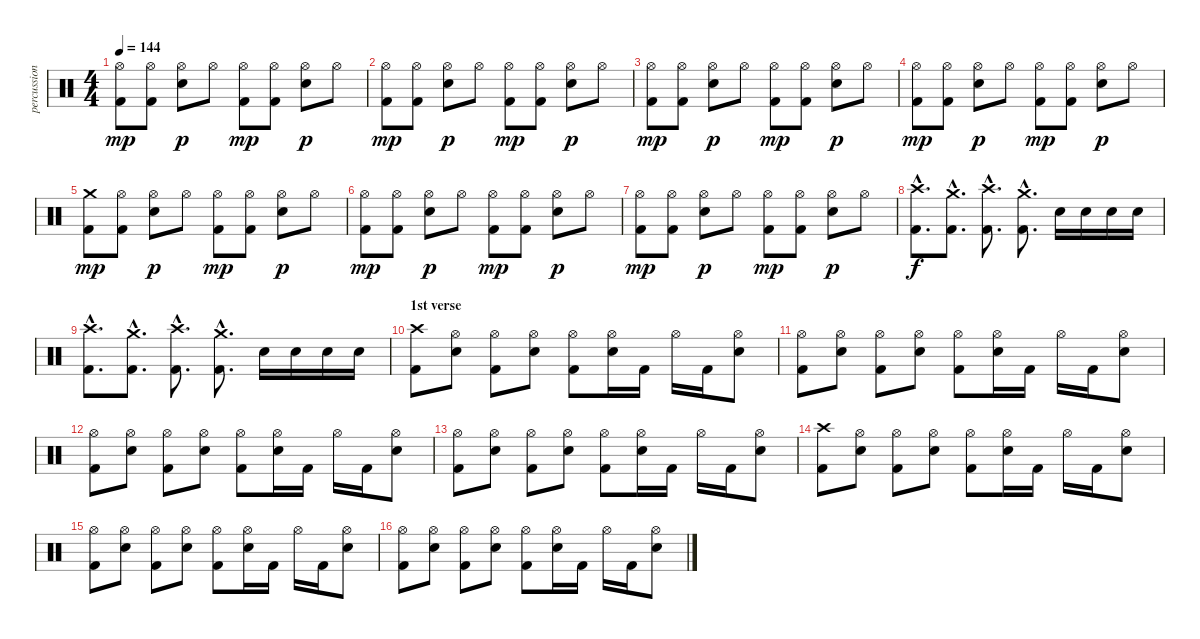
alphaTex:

\track ("percussion" "percussion") {instrument percussion}
\staff {score}
\articulation defaults
\ts (4 4)
\tempo 144
\clef neutral
\ks c
("Hi-Hat (open)" "Kick (hit) 2").8{dy mp} ("Hi-Hat (open)" "Kick (hit) 2").8 ("Hi-Hat (open)" "Electric Snare (hit)").8{dy p} "Hi-Hat (open)".8 ("Hi-Hat (open)" "Kick (hit) 2").8{dy mp} ("Hi-Hat (open)" "Kick (hit) 2").8 ("Hi-Hat (open)" "Electric Snare (hit)").8{dy p} "Hi-Hat (open)".8 |
("Hi-Hat (open)" "Kick (hit) 2").8{dy mp} ("Hi-Hat (open)" "Kick (hit) 2").8 ("Hi-Hat (open)" "Electric Snare (hit)").8{dy p} "Hi-Hat (open)".8 ("Hi-Hat (open)" "Kick (hit) 2").8{dy mp} ("Hi-Hat (open)" "Kick (hit) 2").8 ("Hi-Hat (open)" "Electric Snare (hit)").8{dy p} "Hi-Hat (open)".8 |
("Hi-Hat (open)" "Kick (hit) 2").8{dy mp} ("Hi-Hat (open)" "Kick (hit) 2").8 ("Hi-Hat (open)" "Electric Snare (hit)").8{dy p} "Hi-Hat (open)".8 ("Hi-Hat (open)" "Kick (hit) 2").8{dy mp} ("Hi-Hat (open)" "Kick (hit) 2").8 ("Hi-Hat (open)" "Electric Snare (hit)").8{dy p} "Hi-Hat (open)".8 |
("Hi-Hat (open)" "Kick (hit) 2").8{dy mp} ("Hi-Hat (open)" "Kick (hit) 2").8 ("Hi-Hat (open)" "Electric Snare (hit)").8{dy p} "Hi-Hat (open)".8 ("Hi-Hat (open)" "Kick (hit) 2").8{dy mp} ("Hi-Hat (open)" "Kick (hit) 2").8 ("Hi-Hat (open)" "Electric Snare (hit)").8{dy p} "Hi-Hat (open)".8 |
("Crash medium (hit)" "Kick (hit) 2").8{dy mp} ("Hi-Hat (open)" "Kick (hit) 2").8 ("Hi-Hat (open)" "Electric Snare (hit)").8{dy p} "Hi-Hat (open)".8 ("Hi-Hat (open)" "Kick (hit) 2").8{dy mp} ("Hi-Hat (open)" "Kick (hit) 2").8 ("Hi-Hat (open)" "Electric Snare (hit)").8{dy p} "Hi-Hat (open)".8 |
("Hi-Hat (open)" "Kick (hit) 2").8{dy mp} ("Hi-Hat (open)" "Kick (hit) 2").8 ("Hi-Hat (open)" "Electric Snare (hit)").8{dy p} "Hi-Hat (open)".8 ("Hi-Hat (open)" "Kick (hit) 2").8{dy mp} ("Hi-Hat (open)" "Kick (hit) 2").8 ("Hi-Hat (open)" "Electric Snare (hit)").8{dy p} "Hi-Hat (open)".8 |
("Hi-Hat (open)" "Kick (hit) 2").8{dy mp} ("Hi-Hat (open)" "Kick (hit) 2").8 ("Hi-Hat (open)" "Electric Snare (hit)").8{dy p} "Hi-Hat (open)".8 ("Hi-Hat (open)" "Kick (hit) 2").8{dy mp} ("Hi-Hat (open)" "Kick (hit) 2").8 ("Hi-Hat (open)" "Electric Snare (hit)").8{dy p} "Hi-Hat (open)".8 |
("Crash high (hit)"{hac} "Kick (hit) 2"{hac}).8{d dy f} ("Crash medium (hit)"{hac} "Kick (hit) 2"{hac}).8{d} ("Crash high (hit)"{hac} "Kick (hit) 2"{hac}).8{d} ("Crash medium (hit)"{hac} "Kick (hit) 2"{hac}).8{d} "Electric Snare (hit)".16 "Electric Snare (hit)".16 "Electric Snare (hit)".16 "Electric Snare (hit)".16 |
("Crash high (hit)"{hac} "Kick (hit) 2"{hac}).8{d} ("Crash medium (hit)"{hac} "Kick (hit) 2"{hac}).8{d} ("Crash high (hit)"{hac} "Kick (hit) 2"{hac}).8{d} ("Crash medium (hit)"{hac} "Kick (hit) 2"{hac}).8{d} "Electric Snare (hit)".16 "Electric Snare (hit)".16 "Electric Snare (hit)".16 "Electric Snare (hit)".16 |
\section ("" "1st verse")
("Crash high (hit)" "Kick (hit) 2").8 ("Hi-Hat (open)" "Electric Snare (hit)").8 ("Hi-Hat (open)" "Kick (hit) 2").8 ("Hi-Hat (open)" "Electric Snare (hit)").8 ("Hi-Hat (open)" "Kick (hit) 2").8 ("Hi-Hat (open)" "Electric Snare (hit)").16 "Kick (hit) 2".16 "Hi-Hat (open)".16 "Kick (hit) 2".16 ("Hi-Hat (open)" "Electric Snare (hit)").8 |
("Hi-Hat (open)" "Kick (hit) 2").8 ("Hi-Hat (open)" "Electric Snare (hit)").8 ("Hi-Hat (open)" "Kick (hit) 2").8 ("Hi-Hat (open)" "Electric Snare (hit)").8 ("Hi-Hat (open)" "Kick (hit) 2").8 ("Hi-Hat (open)" "Electric Snare (hit)").16 "Kick (hit) 2".16 "Hi-Hat (open)".16 "Kick (hit) 2".16 ("Hi-Hat (open)" "Electric Snare (hit)").8 |
("Hi-Hat (open)" "Kick (hit) 2").8 ("Hi-Hat (open)" "Electric Snare (hit)").8 ("Hi-Hat (open)" "Kick (hit) 2").8 ("Hi-Hat (open)" "Electric Snare (hit)").8 ("Hi-Hat (open)" "Kick (hit) 2").8 ("Hi-Hat (open)" "Electric Snare (hit)").16 "Kick (hit) 2".16 "Hi-Hat (open)".16 "Kick (hit) 2".16 ("Hi-Hat (open)" "Electric Snare (hit)").8 |
("Hi-Hat (open)" "Kick (hit) 2").8 ("Hi-Hat (open)" "Electric Snare (hit)").8 ("Hi-Hat (open)" "Kick (hit) 2").8 ("Hi-Hat (open)" "Electric Snare (hit)").8 ("Hi-Hat (open)" "Kick (hit) 2").8 ("Hi-Hat (open)" "Electric Snare (hit)").16 "Kick (hit) 2".16 "Hi-Hat (open)".16 "Kick (hit) 2".16 ("Hi-Hat (open)" "Electric Snare (hit)").8 |
("Crash high (hit)" "Kick (hit) 2").8 ("Hi-Hat (open)" "Electric Snare (hit)").8 ("Hi-Hat (open)" "Kick (hit) 2").8 ("Hi-Hat (open)" "Electric Snare (hit)").8 ("Hi-Hat (open)" "Kick (hit) 2").8 ("Hi-Hat (open)" "Electric Snare (hit)").16 "Kick (hit) 2".16 "Hi-Hat (open)".16 "Kick (hit) 2".16 ("Hi-Hat (open)" "Electric Snare (hit)").8 |
("Hi-Hat (open)" "Kick (hit) 2").8 ("Hi-Hat (open)" "Electric Snare (hit)").8 ("Hi-Hat (open)" "Kick (hit) 2").8 ("Hi-Hat (open)" "Electric Snare (hit)").8 ("Hi-Hat (open)" "Kick (hit) 2").8 ("Hi-Hat (open)" "Electric Snare (hit)").16 "Kick (hit) 2".16 "Hi-Hat (open)".16 "Kick (hit) 2".16 ("Hi-Hat (open)" "Electric Snare (hit)").8 |
("Hi-Hat (open)" "Kick (hit) 2").8 ("Hi-Hat (open)" "Electric Snare (hit)").8 ("Hi-Hat (open)" "Kick (hit) 2").8 ("Hi-Hat (open)" "Electric Snare (hit)").8 ("Hi-Hat (open)" "Kick (hit) 2").8 ("Hi-Hat (open)" "Electric Snare (hit)").16 "Kick (hit) 2".16 "Hi-Hat (open)".16 "Kick (hit) 2".16 ("Hi-Hat (open)" "Electric Snare (hit)").8
